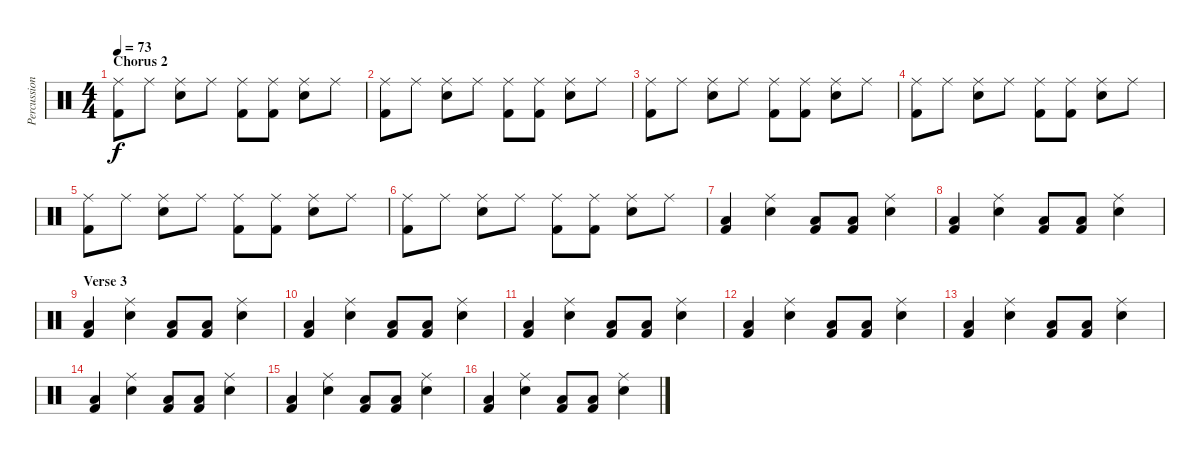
\track ("Percussion" "Percussion") {instrument percussion}
\staff {score}
\articulation defaults
\ts (4 4)
\section ("" "Chorus 2")
\tempo 73
\clef neutral
\ks c
("Ride (middle)" "Kick (hit) 2").8{dy f} "Ride (middle)".8 ("Ride (middle)" "Electric Snare (hit)").8 "Ride (middle)".8 ("Ride (middle)" "Kick (hit) 2").8 ("Ride (middle)" "Kick (hit) 2").8 ("Ride (middle)" "Electric Snare (hit)").8 "Ride (middle)".8 |
("Ride (middle)" "Kick (hit) 2").8 "Ride (middle)".8 ("Ride (middle)" "Electric Snare (hit)").8 "Ride (middle)".8 ("Ride (middle)" "Kick (hit) 2").8 ("Ride (middle)" "Kick (hit) 2").8 ("Ride (middle)" "Electric Snare (hit)").8 "Ride (middle)".8 |
("Ride (middle)" "Kick (hit) 2").8 "Ride (middle)".8 ("Ride (middle)" "Electric Snare (hit)").8 "Ride (middle)".8 ("Ride (middle)" "Kick (hit) 2").8 ("Ride (middle)" "Kick (hit) 2").8 ("Ride (middle)" "Electric Snare (hit)").8 "Ride (middle)".8 |
("Ride (middle)" "Kick (hit) 2").8 "Ride (middle)".8 ("Ride (middle)" "Electric Snare (hit)").8 "Ride (middle)".8 ("Ride (middle)" "Kick (hit) 2").8 ("Ride (middle)" "Kick (hit) 2").8 ("Ride (middle)" "Electric Snare (hit)").8 "Ride (middle)".8 |
("Ride (middle)" "Kick (hit) 2").8 "Ride (middle)".8 ("Ride (middle)" "Electric Snare (hit)").8 "Ride (middle)".8 ("Ride (middle)" "Kick (hit) 2").8 ("Ride (middle)" "Kick (hit) 2").8 ("Ride (middle)" "Electric Snare (hit)").8 "Ride (middle)".8 |
("Ride (middle)" "Kick (hit) 2").8 "Ride (middle)".8 ("Ride (middle)" "Electric Snare (hit)").8 "Ride (middle)".8 ("Ride (middle)" "Kick (hit) 2").8 ("Ride (middle)" "Kick (hit) 2").8 ("Ride (middle)" "Electric Snare (hit)").8 "Ride (middle)".8 |
("Low Floor Tom (hit)" "Kick (hit) 2").4 ("Ride (middle)" "Electric Snare (hit)").4 ("Low Floor Tom (hit)" "Kick (hit) 2").8 ("Low Floor Tom (hit)" "Kick (hit) 2").8 ("Ride (middle)" "Electric Snare (hit)").4 |
("Low Floor Tom (hit)" "Kick (hit) 2").4 ("Ride (middle)" "Electric Snare (hit)").4 ("Low Floor Tom (hit)" "Kick (hit) 2").8 ("Low Floor Tom (hit)" "Kick (hit) 2").8 ("Ride (middle)" "Electric Snare (hit)").4 |
\section ("" "Verse 3")
("Low Floor Tom (hit)" "Kick (hit) 2").4 ("Ride (middle)" "Electric Snare (hit)").4 ("Low Floor Tom (hit)" "Kick (hit) 2").8 ("Low Floor Tom (hit)" "Kick (hit) 2").8 ("Ride (middle)" "Electric Snare (hit)").4 |
("Low Floor Tom (hit)" "Kick (hit) 2").4 ("Ride (middle)" "Electric Snare (hit)").4 ("Low Floor Tom (hit)" "Kick (hit) 2").8 ("Low Floor Tom (hit)" "Kick (hit) 2").8 ("Ride (middle)" "Electric Snare (hit)").4 |
("Low Floor Tom (hit)" "Kick (hit) 2").4 ("Ride (middle)" "Electric Snare (hit)").4 ("Low Floor Tom (hit)" "Kick (hit) 2").8 ("Low Floor Tom (hit)" "Kick (hit) 2").8 ("Ride (middle)" "Electric Snare (hit)").4 |
("Low Floor Tom (hit)" "Kick (hit) 2").4 ("Ride (middle)" "Electric Snare (hit)").4 ("Low Floor Tom (hit)" "Kick (hit) 2").8 ("Low Floor Tom (hit)" "Kick (hit) 2").8 ("Ride (middle)" "Electric Snare (hit)").4 |
("Low Floor Tom (hit)" "Kick (hit) 2").4 ("Ride (middle)" "Electric Snare (hit)").4 ("Low Floor Tom (hit)" "Kick (hit) 2").8 ("Low Floor Tom (hit)" "Kick (hit) 2").8 ("Ride (middle)" "Electric Snare (hit)").4 |
("Low Floor Tom (hit)" "Kick (hit) 2").4 ("Ride (middle)" "Electric Snare (hit)").4 ("Low Floor Tom (hit)" "Kick (hit) 2").8 ("Low Floor Tom (hit)" "Kick (hit) 2").8 ("Ride (middle)" "Electric Snare (hit)").4 |
("Low Floor Tom (hit)" "Kick (hit) 2").4 ("Ride (middle)" "Electric Snare (hit)").4 ("Low Floor Tom (hit)" "Kick (hit) 2").8 ("Low Floor Tom (hit)" "Kick (hit) 2").8 ("Ride (middle)" "Electric Snare (hit)").4 |
("Low Floor Tom (hit)" "Kick (hit) 2").4 ("Ride (middle)" "Electric Snare (hit)").4 ("Low Floor Tom (hit)" "Kick (hit) 2").8 ("Low Floor Tom (hit)" "Kick (hit) 2").8 ("Ride (middle)" "Electric Snare (hit)").4
